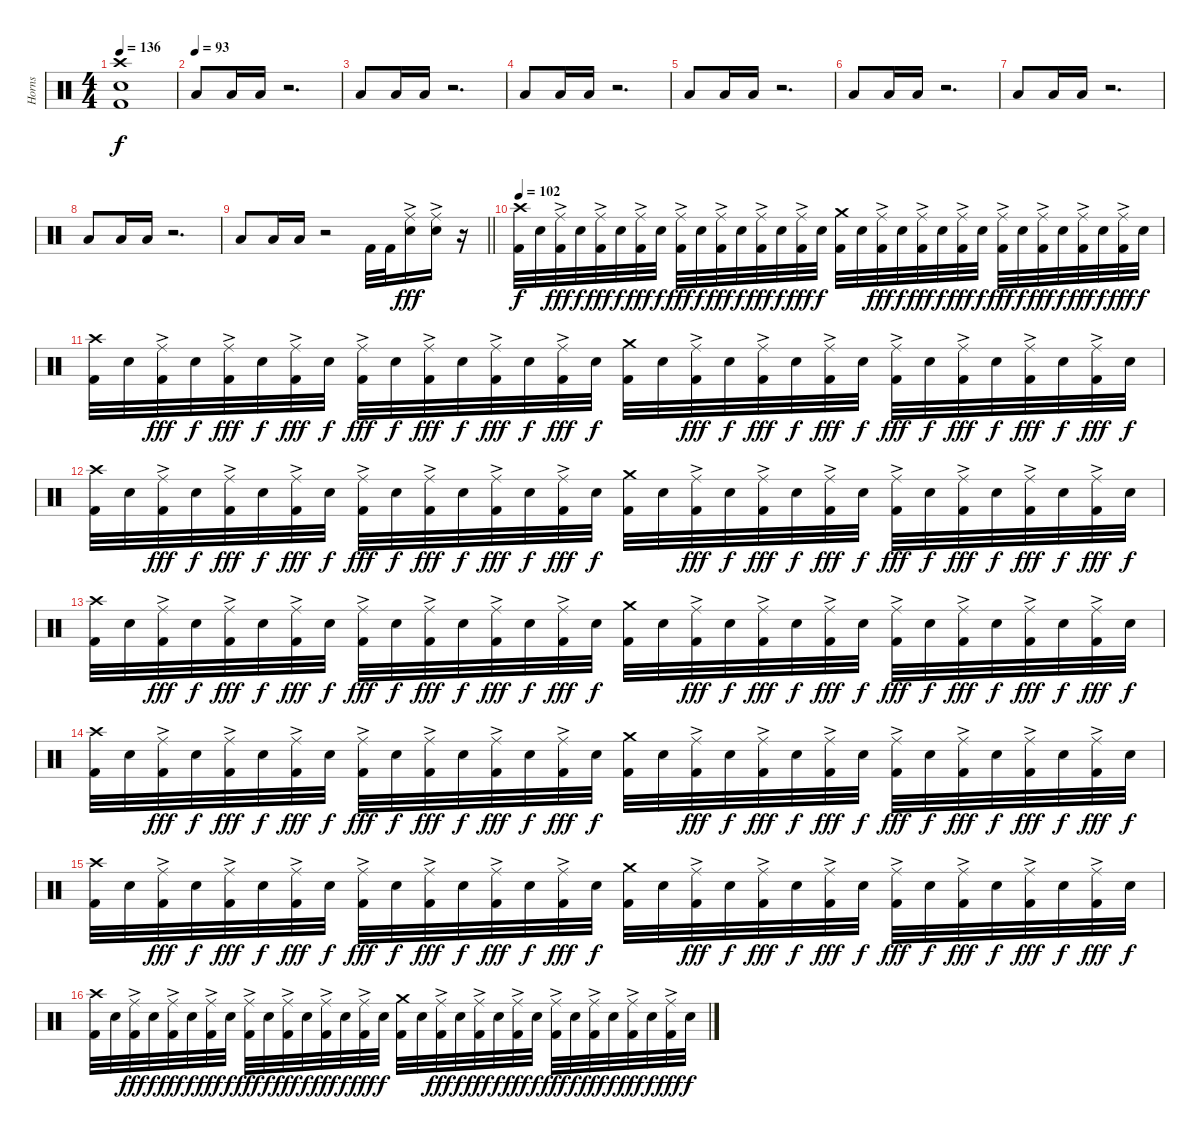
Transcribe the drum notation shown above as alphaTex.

\track ("Horns" "Horns") {instrument percussion}
\staff {score}
\articulation defaults
\ts (4 4)
\tempo 136
\clef neutral
\ks c
("Crash high (hit)" "Snare (hit) 2" "Kick (hit) 2").1{dy f} |
\tempo (93)
"Low Floor Tom (hit)".8 "Low Floor Tom (hit)".16 "Low Tom (hit)".16 r.2{d} |
"Low Floor Tom (hit)".8 "Low Floor Tom (hit)".16 "Low Tom (hit)".16 r.2{d} |
"Low Floor Tom (hit)".8 "Low Floor Tom (hit)".16 "Low Tom (hit)".16 r.2{d} |
"Low Floor Tom (hit)".8 "Low Floor Tom (hit)".16 "Low Tom (hit)".16 r.2{d} |
"Low Floor Tom (hit)".8 "Low Floor Tom (hit)".16 "Low Tom (hit)".16 r.2{d} |
"Low Floor Tom (hit)".8 "Low Floor Tom (hit)".16 "Low Tom (hit)".16 r.2{d} |
"Low Floor Tom (hit)".8 "Low Floor Tom (hit)".16 "Low Tom (hit)".16 r.2{d} |
\barLineRight lightlight "Low Floor Tom (hit)".8 "Low Floor Tom (hit)".16 "Low Tom (hit)".16
r.2 "Kick (hit) 2".32 "Kick (hit) 2".32 ("Ride (middle)"{ac} "Snare (hit) 2").16{dy fff} ("Ride (middle)"{ac} "Snare (hit) 2").16 r.16 |
\tempo 102
("Crash high (hit)" "Kick (hit) 2").32{dy f} "Snare (hit) 2".32 ("Ride (middle)"{ac} "Kick (hit) 2").32{dy fff} "Snare (hit) 2".32{dy f} ("Ride (middle)"{ac} "Kick (hit) 2").32{dy fff} "Snare (hit) 2".32{dy f} ("Ride (middle)"{ac} "Kick (hit) 2").32{dy fff} "Snare (hit) 2".32{dy f} ("Ride (middle)"{ac} "Kick (hit) 2").32{dy fff} "Snare (hit) 2".32{dy f} ("Ride (middle)"{ac} "Kick (hit) 2").32{dy fff} "Snare (hit) 2".32{dy f} ("Ride (middle)"{ac} "Kick (hit) 2").32{dy fff} "Snare (hit) 2".32{dy f} ("Ride (middle)"{ac} "Kick (hit) 2").32{dy fff} "Snare (hit) 2".32{dy f} ("Crash medium (hit)" "Kick (hit) 2").32 "Snare (hit) 2".32 ("Ride (middle)"{ac} "Kick (hit) 2").32{dy fff} "Snare (hit) 2".32{dy f} ("Ride (middle)"{ac} "Kick (hit) 2").32{dy fff} "Snare (hit) 2".32{dy f} ("Ride (middle)"{ac} "Kick (hit) 2").32{dy fff} "Snare (hit) 2".32{dy f} ("Ride (middle)"{ac} "Kick (hit) 2").32{dy fff} "Snare (hit) 2".32{dy f} ("Ride (middle)"{ac} "Kick (hit) 2").32{dy fff} "Snare (hit) 2".32{dy f} ("Ride (middle)"{ac} "Kick (hit) 2").32{dy fff} "Snare (hit) 2".32{dy f} ("Ride (middle)"{ac} "Kick (hit) 2").32{dy fff} "Snare (hit) 2".32{dy f} |
("Crash high (hit)" "Kick (hit) 2").32 "Snare (hit) 2".32 ("Ride (middle)"{ac} "Kick (hit) 2").32{dy fff} "Snare (hit) 2".32{dy f} ("Ride (middle)"{ac} "Kick (hit) 2").32{dy fff} "Snare (hit) 2".32{dy f} ("Ride (middle)"{ac} "Kick (hit) 2").32{dy fff} "Snare (hit) 2".32{dy f} ("Ride (middle)"{ac} "Kick (hit) 2").32{dy fff} "Snare (hit) 2".32{dy f} ("Ride (middle)"{ac} "Kick (hit) 2").32{dy fff} "Snare (hit) 2".32{dy f} ("Ride (middle)"{ac} "Kick (hit) 2").32{dy fff} "Snare (hit) 2".32{dy f} ("Ride (middle)"{ac} "Kick (hit) 2").32{dy fff} "Snare (hit) 2".32{dy f} ("Crash medium (hit)" "Kick (hit) 2").32 "Snare (hit) 2".32 ("Ride (middle)"{ac} "Kick (hit) 2").32{dy fff} "Snare (hit) 2".32{dy f} ("Ride (middle)"{ac} "Kick (hit) 2").32{dy fff} "Snare (hit) 2".32{dy f} ("Ride (middle)"{ac} "Kick (hit) 2").32{dy fff} "Snare (hit) 2".32{dy f} ("Ride (middle)"{ac} "Kick (hit) 2").32{dy fff} "Snare (hit) 2".32{dy f} ("Ride (middle)"{ac} "Kick (hit) 2").32{dy fff} "Snare (hit) 2".32{dy f} ("Ride (middle)"{ac} "Kick (hit) 2").32{dy fff} "Snare (hit) 2".32{dy f} ("Ride (middle)"{ac} "Kick (hit) 2").32{dy fff} "Snare (hit) 2".32{dy f} |
("Crash high (hit)" "Kick (hit) 2").32 "Snare (hit) 2".32 ("Ride (middle)"{ac} "Kick (hit) 2").32{dy fff} "Snare (hit) 2".32{dy f} ("Ride (middle)"{ac} "Kick (hit) 2").32{dy fff} "Snare (hit) 2".32{dy f} ("Ride (middle)"{ac} "Kick (hit) 2").32{dy fff} "Snare (hit) 2".32{dy f} ("Ride (middle)"{ac} "Kick (hit) 2").32{dy fff} "Snare (hit) 2".32{dy f} ("Ride (middle)"{ac} "Kick (hit) 2").32{dy fff} "Snare (hit) 2".32{dy f} ("Ride (middle)"{ac} "Kick (hit) 2").32{dy fff} "Snare (hit) 2".32{dy f} ("Ride (middle)"{ac} "Kick (hit) 2").32{dy fff} "Snare (hit) 2".32{dy f} ("Crash medium (hit)" "Kick (hit) 2").32 "Snare (hit) 2".32 ("Ride (middle)"{ac} "Kick (hit) 2").32{dy fff} "Snare (hit) 2".32{dy f} ("Ride (middle)"{ac} "Kick (hit) 2").32{dy fff} "Snare (hit) 2".32{dy f} ("Ride (middle)"{ac} "Kick (hit) 2").32{dy fff} "Snare (hit) 2".32{dy f} ("Ride (middle)"{ac} "Kick (hit) 2").32{dy fff} "Snare (hit) 2".32{dy f} ("Ride (middle)"{ac} "Kick (hit) 2").32{dy fff} "Snare (hit) 2".32{dy f} ("Ride (middle)"{ac} "Kick (hit) 2").32{dy fff} "Snare (hit) 2".32{dy f} ("Ride (middle)"{ac} "Kick (hit) 2").32{dy fff} "Snare (hit) 2".32{dy f} |
("Crash high (hit)" "Kick (hit) 2").32 "Snare (hit) 2".32 ("Ride (middle)"{ac} "Kick (hit) 2").32{dy fff} "Snare (hit) 2".32{dy f} ("Ride (middle)"{ac} "Kick (hit) 2").32{dy fff} "Snare (hit) 2".32{dy f} ("Ride (middle)"{ac} "Kick (hit) 2").32{dy fff} "Snare (hit) 2".32{dy f} ("Ride (middle)"{ac} "Kick (hit) 2").32{dy fff} "Snare (hit) 2".32{dy f} ("Ride (middle)"{ac} "Kick (hit) 2").32{dy fff} "Snare (hit) 2".32{dy f} ("Ride (middle)"{ac} "Kick (hit) 2").32{dy fff} "Snare (hit) 2".32{dy f} ("Ride (middle)"{ac} "Kick (hit) 2").32{dy fff} "Snare (hit) 2".32{dy f} ("Crash medium (hit)" "Kick (hit) 2").32 "Snare (hit) 2".32 ("Ride (middle)"{ac} "Kick (hit) 2").32{dy fff} "Snare (hit) 2".32{dy f} ("Ride (middle)"{ac} "Kick (hit) 2").32{dy fff} "Snare (hit) 2".32{dy f} ("Ride (middle)"{ac} "Kick (hit) 2").32{dy fff} "Snare (hit) 2".32{dy f} ("Ride (middle)"{ac} "Kick (hit) 2").32{dy fff} "Snare (hit) 2".32{dy f} ("Ride (middle)"{ac} "Kick (hit) 2").32{dy fff} "Snare (hit) 2".32{dy f} ("Ride (middle)"{ac} "Kick (hit) 2").32{dy fff} "Snare (hit) 2".32{dy f} ("Ride (middle)"{ac} "Kick (hit) 2").32{dy fff} "Snare (hit) 2".32{dy f} |
("Crash high (hit)" "Kick (hit) 2").32 "Snare (hit) 2".32 ("Ride (middle)"{ac} "Kick (hit) 2").32{dy fff} "Snare (hit) 2".32{dy f} ("Ride (middle)"{ac} "Kick (hit) 2").32{dy fff} "Snare (hit) 2".32{dy f} ("Ride (middle)"{ac} "Kick (hit) 2").32{dy fff} "Snare (hit) 2".32{dy f} ("Ride (middle)"{ac} "Kick (hit) 2").32{dy fff} "Snare (hit) 2".32{dy f} ("Ride (middle)"{ac} "Kick (hit) 2").32{dy fff} "Snare (hit) 2".32{dy f} ("Ride (middle)"{ac} "Kick (hit) 2").32{dy fff} "Snare (hit) 2".32{dy f} ("Ride (middle)"{ac} "Kick (hit) 2").32{dy fff} "Snare (hit) 2".32{dy f} ("Crash medium (hit)" "Kick (hit) 2").32 "Snare (hit) 2".32 ("Ride (middle)"{ac} "Kick (hit) 2").32{dy fff} "Snare (hit) 2".32{dy f} ("Ride (middle)"{ac} "Kick (hit) 2").32{dy fff} "Snare (hit) 2".32{dy f} ("Ride (middle)"{ac} "Kick (hit) 2").32{dy fff} "Snare (hit) 2".32{dy f} ("Ride (middle)"{ac} "Kick (hit) 2").32{dy fff} "Snare (hit) 2".32{dy f} ("Ride (middle)"{ac} "Kick (hit) 2").32{dy fff} "Snare (hit) 2".32{dy f} ("Ride (middle)"{ac} "Kick (hit) 2").32{dy fff} "Snare (hit) 2".32{dy f} ("Ride (middle)"{ac} "Kick (hit) 2").32{dy fff} "Snare (hit) 2".32{dy f} |
("Crash high (hit)" "Kick (hit) 2").32 "Snare (hit) 2".32 ("Ride (middle)"{ac} "Kick (hit) 2").32{dy fff} "Snare (hit) 2".32{dy f} ("Ride (middle)"{ac} "Kick (hit) 2").32{dy fff} "Snare (hit) 2".32{dy f} ("Ride (middle)"{ac} "Kick (hit) 2").32{dy fff} "Snare (hit) 2".32{dy f} ("Ride (middle)"{ac} "Kick (hit) 2").32{dy fff} "Snare (hit) 2".32{dy f} ("Ride (middle)"{ac} "Kick (hit) 2").32{dy fff} "Snare (hit) 2".32{dy f} ("Ride (middle)"{ac} "Kick (hit) 2").32{dy fff} "Snare (hit) 2".32{dy f} ("Ride (middle)"{ac} "Kick (hit) 2").32{dy fff} "Snare (hit) 2".32{dy f} ("Crash medium (hit)" "Kick (hit) 2").32 "Snare (hit) 2".32 ("Ride (middle)"{ac} "Kick (hit) 2").32{dy fff} "Snare (hit) 2".32{dy f} ("Ride (middle)"{ac} "Kick (hit) 2").32{dy fff} "Snare (hit) 2".32{dy f} ("Ride (middle)"{ac} "Kick (hit) 2").32{dy fff} "Snare (hit) 2".32{dy f} ("Ride (middle)"{ac} "Kick (hit) 2").32{dy fff} "Snare (hit) 2".32{dy f} ("Ride (middle)"{ac} "Kick (hit) 2").32{dy fff} "Snare (hit) 2".32{dy f} ("Ride (middle)"{ac} "Kick (hit) 2").32{dy fff} "Snare (hit) 2".32{dy f} ("Ride (middle)"{ac} "Kick (hit) 2").32{dy fff} "Snare (hit) 2".32{dy f} |
("Crash high (hit)" "Kick (hit) 2").32 "Snare (hit) 2".32 ("Ride (middle)"{ac} "Kick (hit) 2").32{dy fff} "Snare (hit) 2".32{dy f} ("Ride (middle)"{ac} "Kick (hit) 2").32{dy fff} "Snare (hit) 2".32{dy f} ("Ride (middle)"{ac} "Kick (hit) 2").32{dy fff} "Snare (hit) 2".32{dy f} ("Ride (middle)"{ac} "Kick (hit) 2").32{dy fff} "Snare (hit) 2".32{dy f} ("Ride (middle)"{ac} "Kick (hit) 2").32{dy fff} "Snare (hit) 2".32{dy f} ("Ride (middle)"{ac} "Kick (hit) 2").32{dy fff} "Snare (hit) 2".32{dy f} ("Ride (middle)"{ac} "Kick (hit) 2").32{dy fff} "Snare (hit) 2".32{dy f} ("Crash medium (hit)" "Kick (hit) 2").32 "Snare (hit) 2".32 ("Ride (middle)"{ac} "Kick (hit) 2").32{dy fff} "Snare (hit) 2".32{dy f} ("Ride (middle)"{ac} "Kick (hit) 2").32{dy fff} "Snare (hit) 2".32{dy f} ("Ride (middle)"{ac} "Kick (hit) 2").32{dy fff} "Snare (hit) 2".32{dy f} ("Ride (middle)"{ac} "Kick (hit) 2").32{dy fff} "Snare (hit) 2".32{dy f} ("Ride (middle)"{ac} "Kick (hit) 2").32{dy fff} "Snare (hit) 2".32{dy f} ("Ride (middle)"{ac} "Kick (hit) 2").32{dy fff} "Snare (hit) 2".32{dy f} ("Ride (middle)"{ac} "Kick (hit) 2").32{dy fff} "Snare (hit) 2".32{dy f}
